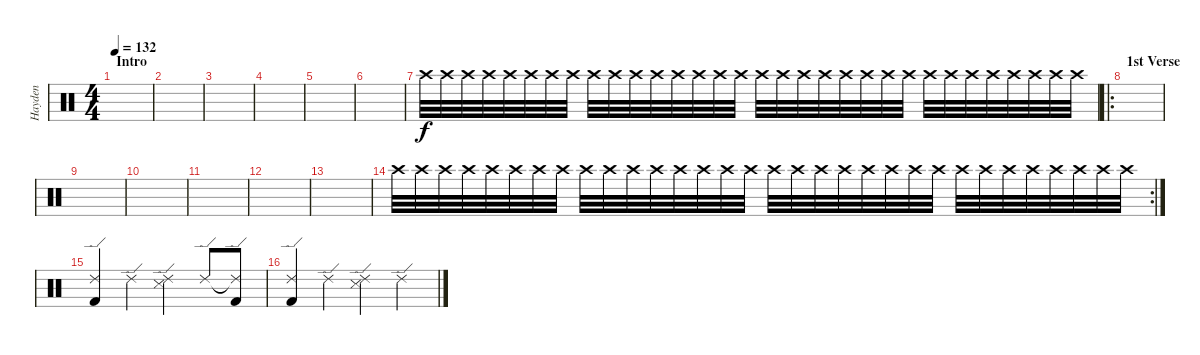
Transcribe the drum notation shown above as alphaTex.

\track ("Hayden" "Hayden") {instrument percussion}
\staff {score}
\articulation defaults
\ts (4 4)
\section ("" "Intro")
\tempo 132
\clef neutral
\ks c
|
|
|
|
|
|
"Crash high (hit)".32 "Crash high (hit)".32 "Crash high (hit)".32 "Crash high (hit)".32 "Crash high (hit)".32 "Crash high (hit)".32 "Crash high (hit)".32 "Crash high (hit)".32 "Crash high (hit)".32 "Crash high (hit)".32 "Crash high (hit)".32 "Crash high (hit)".32 "Crash high (hit)".32 "Crash high (hit)".32 "Crash high (hit)".32 "Crash high (hit)".32 "Crash high (hit)".32 "Crash high (hit)".32 "Crash high (hit)".32 "Crash high (hit)".32 "Crash high (hit)".32 "Crash high (hit)".32 "Crash high (hit)".32 "Crash high (hit)".32 "Crash high (hit)".32 "Crash high (hit)".32 "Crash high (hit)".32 "Crash high (hit)".32 "Crash high (hit)".32 "Crash high (hit)".32 "Crash high (hit)".32 "Crash high (hit)".32 |
\ro
\section ("" "1st Verse")
|
|
|
|
|
|
\rc 2 "Crash high (hit)".32 "Crash high (hit)".32 "Crash high (hit)".32 "Crash high (hit)".32 "Crash high (hit)".32 "Crash high (hit)".32 "Crash high (hit)".32 "Crash high (hit)".32 "Crash high (hit)".32 "Crash high (hit)".32 "Crash high (hit)".32 "Crash high (hit)".32 "Crash high (hit)".32 "Crash high (hit)".32 "Crash high (hit)".32 "Crash high (hit)".32 "Crash high (hit)".32 "Crash high (hit)".32 "Crash high (hit)".32 "Crash high (hit)".32 "Crash high (hit)".32 "Crash high (hit)".32 "Crash high (hit)".32 "Crash high (hit)".32 "Crash high (hit)".32 "Crash high (hit)".32 "Crash high (hit)".32 "Crash high (hit)".32 "Crash high (hit)".32 "Crash high (hit)".32 "Crash high (hit)".32 "Crash high (hit)".32
|
("Ride (edge) 2" "Kick (hit) 2").4 "Ride (edge) 2".4 ("Ride (edge) 2" "Snare (side stick) 3").4 "Ride (edge) 2".8 ("Ride (edge) 2"{t} "Kick (hit) 2").8 |
("Ride (edge) 2" "Kick (hit) 2").4 "Ride (edge) 2".4 ("Ride (edge) 2" "Snare (side stick) 3").4 "Ride (edge) 2".4
